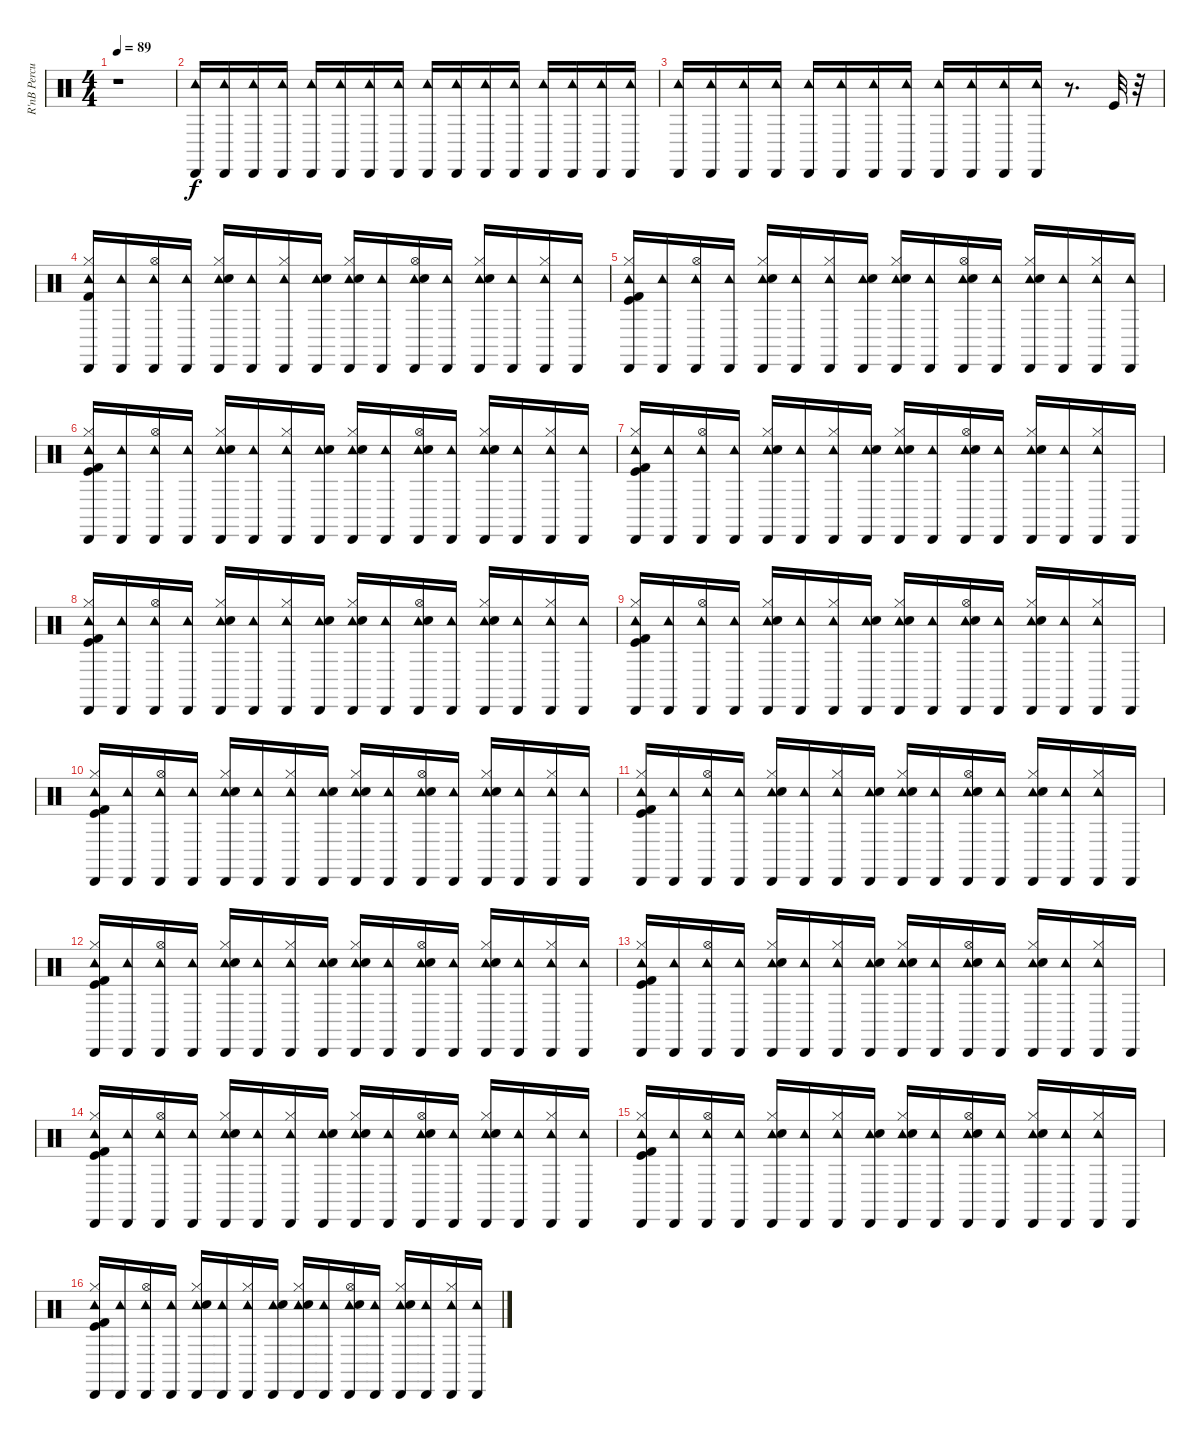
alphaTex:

\track ("R'nB Percussion" "R'nB Percu") {instrument percussion}
\staff {score}
\articulation defaults
\ts (4 4)
\tempo 89
\clef neutral
\ks c
r.1{dy f} |
("Cabasa (hit)" "Tambourine (hit)").16 ("Tambourine (hit)" "Cabasa (hit)").16 ("Tambourine (hit)" "Cabasa (hit)").16 ("Cabasa (hit)" "Tambourine (hit)").16 ("Cabasa (hit)" "Tambourine (hit)").16 ("Tambourine (hit)" "Cabasa (hit)").16 ("Cabasa (hit)" "Tambourine (hit)").16 ("Cabasa (hit)" "Tambourine (hit)").16 ("Cabasa (hit)" "Tambourine (hit)").16 ("Cabasa (hit)" "Tambourine (hit)").16 ("Cabasa (hit)" "Tambourine (hit)").16 ("Tambourine (hit)" "Cabasa (hit)").16 ("Cabasa (hit)" "Tambourine (hit)").16 ("Cabasa (hit)" "Tambourine (hit)").16 ("Cabasa (hit)" "Tambourine (hit)").16 ("Tambourine (hit)" "Cabasa (hit)").16 |
("Cabasa (hit)" "Tambourine (hit)").16 ("Tambourine (hit)" "Cabasa (hit)").16 ("Tambourine (hit)" "Cabasa (hit)").16 ("Tambourine (hit)" "Cabasa (hit)").16 ("Tambourine (hit)" "Cabasa (hit)").16 ("Tambourine (hit)" "Cabasa (hit)").16 ("Cabasa (hit)" "Tambourine (hit)").16 ("Tambourine (hit)" "Cabasa (hit)").16 ("Tambourine (hit)" "Cabasa (hit)").16 ("Cabasa (hit)" "Tambourine (hit)").16 ("Tambourine (hit)" "Cabasa (hit)").16 ("Cabasa (hit)" "Tambourine (hit)").16 r.8{d} "Kick (hit)".32 r.32 |
("Tambourine (hit)" "Cabasa (hit)" "Kick (hit) 2" "Hi-Hat (closed)").16 ("Tambourine (hit)" "Cabasa (hit)").16 ("Cabasa (hit)" "Tambourine (hit)" "Hi-Hat (open)").16 ("Cabasa (hit)" "Tambourine (hit)").16 ("Tambourine (hit)" "Cabasa (hit)" "Hi-Hat (closed)" "Hand Clap (hit)").16 ("Tambourine (hit)" "Cabasa (hit)").16 ("Tambourine (hit)" "Cabasa (hit)" "Hi-Hat (closed)").16 ("Cabasa (hit)" "Tambourine (hit)" "Hand Clap (hit)").16 ("Tambourine (hit)" "Cabasa (hit)" "Hand Clap (hit)" "Hi-Hat (closed)").16 ("Tambourine (hit)" "Cabasa (hit)").16 ("Cabasa (hit)" "Tambourine (hit)" "Hand Clap (hit)" "Hi-Hat (open)").16 ("Cabasa (hit)" "Tambourine (hit)").16 ("Tambourine (hit)" "Cabasa (hit)" "Hi-Hat (closed)" "Hand Clap (hit)").16 ("Cabasa (hit)" "Tambourine (hit)").16 ("Tambourine (hit)" "Cabasa (hit)" "Hi-Hat (closed)").16 ("Cabasa (hit)" "Tambourine (hit)").16 |
("Cabasa (hit)" "Tambourine (hit)" "Hi-Hat (closed)" "Kick (hit)" "Kick (hit) 2").16 ("Tambourine (hit)" "Cabasa (hit)").16 ("Tambourine (hit)" "Cabasa (hit)" "Hi-Hat (open)").16 ("Tambourine (hit)" "Cabasa (hit)").16 ("Cabasa (hit)" "Tambourine (hit)" "Hi-Hat (closed)" "Hand Clap (hit)").16 ("Tambourine (hit)" "Cabasa (hit)").16 ("Tambourine (hit)" "Cabasa (hit)" "Hi-Hat (closed)").16 ("Cabasa (hit)" "Tambourine (hit)" "Hand Clap (hit)").16 ("Cabasa (hit)" "Tambourine (hit)" "Hand Clap (hit)" "Hi-Hat (closed)").16 ("Tambourine (hit)" "Cabasa (hit)").16 ("Cabasa (hit)" "Tambourine (hit)" "Hi-Hat (open)" "Hand Clap (hit)").16 ("Cabasa (hit)" "Tambourine (hit)").16 ("Cabasa (hit)" "Tambourine (hit)" "Hand Clap (hit)" "Hi-Hat (closed)").16 ("Cabasa (hit)" "Tambourine (hit)").16 ("Tambourine (hit)" "Cabasa (hit)" "Hi-Hat (closed)").16 ("Tambourine (hit)" "Cabasa (hit)").16 |
("Cabasa (hit)" "Tambourine (hit)" "Kick (hit) 2" "Kick (hit)" "Hi-Hat (closed)").16 ("Cabasa (hit)" "Tambourine (hit)").16 ("Tambourine (hit)" "Cabasa (hit)" "Hi-Hat (open)").16 ("Cabasa (hit)" "Tambourine (hit)").16 ("Tambourine (hit)" "Cabasa (hit)" "Hi-Hat (closed)" "Hand Clap (hit)").16 ("Cabasa (hit)" "Tambourine (hit)").16 ("Cabasa (hit)" "Tambourine (hit)" "Hi-Hat (closed)").16 ("Tambourine (hit)" "Cabasa (hit)" "Hand Clap (hit)").16 ("Tambourine (hit)" "Cabasa (hit)" "Hand Clap (hit)" "Hi-Hat (closed)").16 ("Tambourine (hit)" "Cabasa (hit)").16 ("Cabasa (hit)" "Tambourine (hit)" "Hi-Hat (open)" "Hand Clap (hit)").16 ("Cabasa (hit)" "Tambourine (hit)").16 ("Tambourine (hit)" "Cabasa (hit)" "Hi-Hat (closed)" "Hand Clap (hit)").16 ("Cabasa (hit)" "Tambourine (hit)").16 ("Tambourine (hit)" "Cabasa (hit)" "Hi-Hat (closed)").16 ("Cabasa (hit)" "Tambourine (hit)").16 |
("Cabasa (hit)" "Tambourine (hit)" "Kick (hit) 2" "Hi-Hat (closed)" "Kick (hit)").16 ("Cabasa (hit)" "Tambourine (hit)").16 ("Cabasa (hit)" "Tambourine (hit)" "Hi-Hat (open)").16 ("Cabasa (hit)" "Tambourine (hit)").16 ("Cabasa (hit)" "Tambourine (hit)" "Hand Clap (hit)" "Hi-Hat (closed)").16 ("Tambourine (hit)" "Cabasa (hit)").16 ("Tambourine (hit)" "Cabasa (hit)" "Hi-Hat (closed)").16 ("Cabasa (hit)" "Tambourine (hit)" "Hand Clap (hit)").16 ("Tambourine (hit)" "Cabasa (hit)" "Hi-Hat (closed)" "Hand Clap (hit)").16 ("Tambourine (hit)" "Cabasa (hit)").16 ("Tambourine (hit)" "Cabasa (hit)" "Hi-Hat (open)" "Hand Clap (hit)").16 ("Cabasa (hit)" "Tambourine (hit)").16 ("Cabasa (hit)" "Tambourine (hit)" "Hi-Hat (closed)" "Hand Clap (hit)").16 ("Cabasa (hit)" "Tambourine (hit)").16 ("Tambourine (hit)" "Cabasa (hit)" "Hi-Hat (closed)").16 "Cabasa (hit)".16 |
("Cabasa (hit)" "Tambourine (hit)" "Kick (hit)" "Kick (hit) 2" "Hi-Hat (closed)").16 ("Tambourine (hit)" "Cabasa (hit)").16 ("Tambourine (hit)" "Cabasa (hit)" "Hi-Hat (open)").16 ("Tambourine (hit)" "Cabasa (hit)").16 ("Cabasa (hit)" "Tambourine (hit)" "Hand Clap (hit)" "Hi-Hat (closed)").16 ("Tambourine (hit)" "Cabasa (hit)").16 ("Tambourine (hit)" "Cabasa (hit)" "Hi-Hat (closed)").16 ("Tambourine (hit)" "Cabasa (hit)" "Hand Clap (hit)").16 ("Tambourine (hit)" "Cabasa (hit)" "Hi-Hat (closed)" "Hand Clap (hit)").16 ("Cabasa (hit)" "Tambourine (hit)").16 ("Tambourine (hit)" "Cabasa (hit)" "Hi-Hat (open)" "Hand Clap (hit)").16 ("Cabasa (hit)" "Tambourine (hit)").16 ("Cabasa (hit)" "Tambourine (hit)" "Hand Clap (hit)" "Hi-Hat (closed)").16 ("Tambourine (hit)" "Cabasa (hit)").16 ("Cabasa (hit)" "Tambourine (hit)" "Hi-Hat (closed)").16 ("Tambourine (hit)" "Cabasa (hit)").16 |
("Tambourine (hit)" "Cabasa (hit)" "Kick (hit)" "Kick (hit) 2" "Hi-Hat (closed)").16 ("Cabasa (hit)" "Tambourine (hit)").16 ("Tambourine (hit)" "Cabasa (hit)" "Hi-Hat (open)").16 ("Cabasa (hit)" "Tambourine (hit)").16 ("Cabasa (hit)" "Tambourine (hit)" "Hand Clap (hit)" "Hi-Hat (closed)").16 ("Tambourine (hit)" "Cabasa (hit)").16 ("Tambourine (hit)" "Cabasa (hit)" "Hi-Hat (closed)").16 ("Cabasa (hit)" "Tambourine (hit)" "Hand Clap (hit)").16 ("Cabasa (hit)" "Tambourine (hit)" "Hand Clap (hit)" "Hi-Hat (closed)").16 ("Cabasa (hit)" "Tambourine (hit)").16 ("Cabasa (hit)" "Tambourine (hit)" "Hand Clap (hit)" "Hi-Hat (open)").16 ("Cabasa (hit)" "Tambourine (hit)").16 ("Cabasa (hit)" "Tambourine (hit)" "Hi-Hat (closed)" "Hand Clap (hit)").16 ("Tambourine (hit)" "Cabasa (hit)").16 ("Tambourine (hit)" "Cabasa (hit)" "Hi-Hat (closed)").16 "Cabasa (hit)".16 |
("Cabasa (hit)" "Tambourine (hit)" "Kick (hit)" "Kick (hit) 2" "Hi-Hat (closed)").16 ("Tambourine (hit)" "Cabasa (hit)").16 ("Tambourine (hit)" "Cabasa (hit)" "Hi-Hat (open)").16 ("Tambourine (hit)" "Cabasa (hit)").16 ("Cabasa (hit)" "Tambourine (hit)" "Hand Clap (hit)" "Hi-Hat (closed)").16 ("Tambourine (hit)" "Cabasa (hit)").16 ("Tambourine (hit)" "Cabasa (hit)" "Hi-Hat (closed)").16 ("Tambourine (hit)" "Cabasa (hit)" "Hand Clap (hit)").16 ("Tambourine (hit)" "Cabasa (hit)" "Hi-Hat (closed)" "Hand Clap (hit)").16 ("Cabasa (hit)" "Tambourine (hit)").16 ("Tambourine (hit)" "Cabasa (hit)" "Hi-Hat (open)" "Hand Clap (hit)").16 ("Cabasa (hit)" "Tambourine (hit)").16 ("Cabasa (hit)" "Tambourine (hit)" "Hand Clap (hit)" "Hi-Hat (closed)").16 ("Tambourine (hit)" "Cabasa (hit)").16 ("Cabasa (hit)" "Tambourine (hit)" "Hi-Hat (closed)").16 ("Tambourine (hit)" "Cabasa (hit)").16 |
("Tambourine (hit)" "Cabasa (hit)" "Kick (hit)" "Kick (hit) 2" "Hi-Hat (closed)").16 ("Cabasa (hit)" "Tambourine (hit)").16 ("Tambourine (hit)" "Cabasa (hit)" "Hi-Hat (open)").16 ("Cabasa (hit)" "Tambourine (hit)").16 ("Cabasa (hit)" "Tambourine (hit)" "Hand Clap (hit)" "Hi-Hat (closed)").16 ("Tambourine (hit)" "Cabasa (hit)").16 ("Tambourine (hit)" "Cabasa (hit)" "Hi-Hat (closed)").16 ("Cabasa (hit)" "Tambourine (hit)" "Hand Clap (hit)").16 ("Cabasa (hit)" "Tambourine (hit)" "Hand Clap (hit)" "Hi-Hat (closed)").16 ("Cabasa (hit)" "Tambourine (hit)").16 ("Cabasa (hit)" "Tambourine (hit)" "Hand Clap (hit)" "Hi-Hat (open)").16 ("Cabasa (hit)" "Tambourine (hit)").16 ("Cabasa (hit)" "Tambourine (hit)" "Hi-Hat (closed)" "Hand Clap (hit)").16 ("Tambourine (hit)" "Cabasa (hit)").16 ("Tambourine (hit)" "Cabasa (hit)" "Hi-Hat (closed)").16 "Cabasa (hit)".16 |
("Cabasa (hit)" "Tambourine (hit)" "Kick (hit) 2" "Kick (hit)" "Hi-Hat (closed)").16 ("Tambourine (hit)" "Cabasa (hit)").16 ("Tambourine (hit)" "Cabasa (hit)" "Hi-Hat (open)").16 ("Tambourine (hit)" "Cabasa (hit)").16 ("Cabasa (hit)" "Tambourine (hit)" "Hand Clap (hit)" "Hi-Hat (closed)").16 ("Cabasa (hit)" "Tambourine (hit)").16 ("Cabasa (hit)" "Tambourine (hit)" "Hi-Hat (closed)").16 ("Tambourine (hit)" "Cabasa (hit)" "Hand Clap (hit)").16 ("Cabasa (hit)" "Tambourine (hit)" "Hand Clap (hit)" "Hi-Hat (closed)").16 ("Tambourine (hit)" "Cabasa (hit)").16 ("Tambourine (hit)" "Cabasa (hit)" "Hand Clap (hit)" "Hi-Hat (open)").16 ("Cabasa (hit)" "Tambourine (hit)").16 ("Tambourine (hit)" "Cabasa (hit)" "Hand Clap (hit)" "Hi-Hat (closed)").16 ("Tambourine (hit)" "Cabasa (hit)").16 ("Cabasa (hit)" "Tambourine (hit)" "Hi-Hat (closed)").16 ("Tambourine (hit)" "Cabasa (hit)").16 |
("Cabasa (hit)" "Tambourine (hit)" "Kick (hit) 2" "Kick (hit)" "Hi-Hat (closed)").16 ("Cabasa (hit)" "Tambourine (hit)").16 ("Cabasa (hit)" "Tambourine (hit)" "Hi-Hat (open)").16 ("Tambourine (hit)" "Cabasa (hit)").16 ("Cabasa (hit)" "Tambourine (hit)" "Hi-Hat (closed)" "Hand Clap (hit)").16 ("Cabasa (hit)" "Tambourine (hit)").16 ("Cabasa (hit)" "Tambourine (hit)" "Hi-Hat (closed)").16 ("Cabasa (hit)" "Tambourine (hit)" "Hand Clap (hit)").16 ("Tambourine (hit)" "Cabasa (hit)" "Hi-Hat (closed)" "Hand Clap (hit)").16 ("Tambourine (hit)" "Cabasa (hit)").16 ("Tambourine (hit)" "Cabasa (hit)" "Hi-Hat (open)" "Hand Clap (hit)").16 ("Cabasa (hit)" "Tambourine (hit)").16 ("Cabasa (hit)" "Tambourine (hit)" "Hi-Hat (closed)" "Hand Clap (hit)").16 ("Tambourine (hit)" "Cabasa (hit)").16 ("Tambourine (hit)" "Cabasa (hit)" "Hi-Hat (closed)").16 "Cabasa (hit)".16 |
("Tambourine (hit)" "Cabasa (hit)" "Hi-Hat (closed)" "Kick (hit)" "Kick (hit) 2").16 ("Tambourine (hit)" "Cabasa (hit)").16 ("Cabasa (hit)" "Tambourine (hit)" "Hi-Hat (open)").16 ("Cabasa (hit)" "Tambourine (hit)").16 ("Tambourine (hit)" "Cabasa (hit)" "Hi-Hat (closed)" "Hand Clap (hit)").16 ("Cabasa (hit)" "Tambourine (hit)").16 ("Tambourine (hit)" "Cabasa (hit)" "Hi-Hat (closed)").16 ("Tambourine (hit)" "Cabasa (hit)" "Hand Clap (hit)").16 ("Tambourine (hit)" "Cabasa (hit)" "Hi-Hat (closed)" "Hand Clap (hit)").16 ("Cabasa (hit)" "Tambourine (hit)").16 ("Cabasa (hit)" "Tambourine (hit)" "Hi-Hat (open)" "Hand Clap (hit)").16 ("Tambourine (hit)" "Cabasa (hit)").16 ("Cabasa (hit)" "Tambourine (hit)" "Hand Clap (hit)" "Hi-Hat (closed)").16 ("Cabasa (hit)" "Tambourine (hit)").16 ("Cabasa (hit)" "Tambourine (hit)" "Hi-Hat (closed)").16 ("Tambourine (hit)" "Cabasa (hit)").16 |
("Cabasa (hit)" "Tambourine (hit)" "Kick (hit)" "Kick (hit) 2" "Hi-Hat (closed)").16 ("Cabasa (hit)" "Tambourine (hit)").16 ("Cabasa (hit)" "Tambourine (hit)" "Hi-Hat (open)").16 ("Tambourine (hit)" "Cabasa (hit)").16 ("Tambourine (hit)" "Cabasa (hit)" "Hi-Hat (closed)" "Hand Clap (hit)").16 ("Tambourine (hit)" "Cabasa (hit)").16 ("Tambourine (hit)" "Cabasa (hit)" "Hi-Hat (closed)").16 ("Tambourine (hit)" "Cabasa (hit)" "Hand Clap (hit)").16 ("Cabasa (hit)" "Tambourine (hit)" "Hand Clap (hit)" "Hi-Hat (closed)").16 ("Tambourine (hit)" "Cabasa (hit)").16 ("Tambourine (hit)" "Cabasa (hit)" "Hi-Hat (open)" "Hand Clap (hit)").16 ("Cabasa (hit)" "Tambourine (hit)").16 ("Cabasa (hit)" "Tambourine (hit)" "Hand Clap (hit)" "Hi-Hat (closed)").16 ("Tambourine (hit)" "Cabasa (hit)").16 ("Cabasa (hit)" "Tambourine (hit)" "Hi-Hat (closed)").16 "Cabasa (hit)".16 |
("Cabasa (hit)" "Tambourine (hit)" "Kick (hit)" "Kick (hit) 2" "Hi-Hat (closed)").16 ("Cabasa (hit)" "Tambourine (hit)").16 ("Tambourine (hit)" "Cabasa (hit)" "Hi-Hat (open)").16 ("Cabasa (hit)" "Tambourine (hit)").16 ("Cabasa (hit)" "Tambourine (hit)" "Hi-Hat (closed)" "Hand Clap (hit)").16 ("Tambourine (hit)" "Cabasa (hit)").16 ("Cabasa (hit)" "Tambourine (hit)" "Hi-Hat (closed)").16 ("Tambourine (hit)" "Cabasa (hit)" "Hand Clap (hit)").16 ("Tambourine (hit)" "Cabasa (hit)" "Hi-Hat (closed)" "Hand Clap (hit)").16 ("Tambourine (hit)" "Cabasa (hit)").16 ("Tambourine (hit)" "Cabasa (hit)" "Hi-Hat (open)" "Hand Clap (hit)").16 ("Cabasa (hit)" "Tambourine (hit)").16 ("Cabasa (hit)" "Tambourine (hit)" "Hand Clap (hit)" "Hi-Hat (closed)").16 ("Tambourine (hit)" "Cabasa (hit)").16 ("Tambourine (hit)" "Cabasa (hit)" "Hi-Hat (closed)").16 ("Cabasa (hit)" "Tambourine (hit)").16
